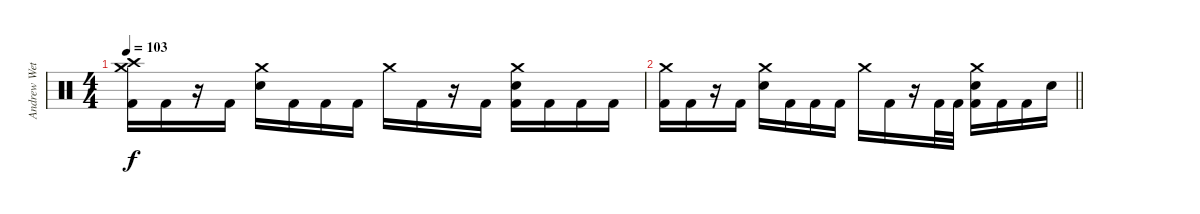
\track ("Andrew Wetzel - Drums" "Andrew Wet") {instrument percussion}
\staff {score}
\articulation defaults
\ts (4 4)
\tempo 103
\clef neutral
\ks c
("Crash high (hit)" "Crash medium (hit)" "Kick (hit) 2").16{dy f} "Kick (hit) 2".16 r.16 "Kick (hit) 2".16 ("Crash medium (hit)" "Electric Snare (hit)").16 "Kick (hit) 2".16 "Kick (hit) 2".16 "Kick (hit) 2".16 "Crash medium (hit)".16 "Kick (hit) 2".16 r.16 "Kick (hit) 2".16 ("Crash medium (hit)" "Electric Snare (hit)" "Kick (hit) 2").16 "Kick (hit) 2".16 "Kick (hit) 2".16 "Kick (hit) 2".16 |
\barLineRight lightlight
("Crash medium (hit)" "Kick (hit) 2").16 "Kick (hit) 2".16 r.16 "Kick (hit) 2".16 ("Crash medium (hit)" "Electric Snare (hit)").16 "Kick (hit) 2".16 "Kick (hit) 2".16 "Kick (hit) 2".16 "Crash medium (hit)".16 "Kick (hit) 2".16 r.16 "Kick (hit) 2".32 "Kick (hit) 2".32 ("Crash medium (hit)" "Electric Snare (hit)" "Kick (hit) 2").16 "Kick (hit) 2".16 "Kick (hit) 2".16 "Electric Snare (hit)".16
